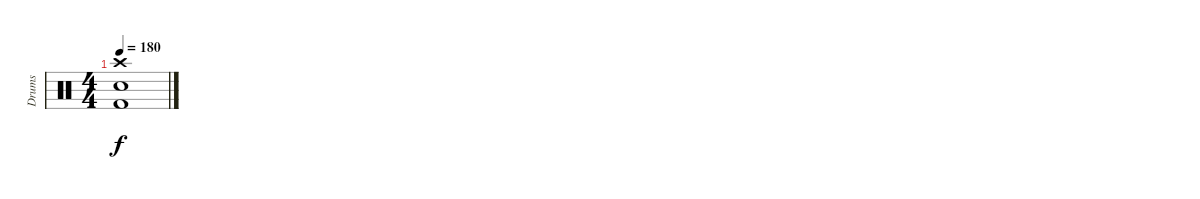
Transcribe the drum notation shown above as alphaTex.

\track ("Drums" "Drums") {instrument percussion}
\staff {score}
\articulation defaults
\ts (4 4)
\tempo 180
\clef neutral
\ks c
("Crash high (hit)" "Snare (hit) 2" "Kick (hit) 2").1{dy f}
